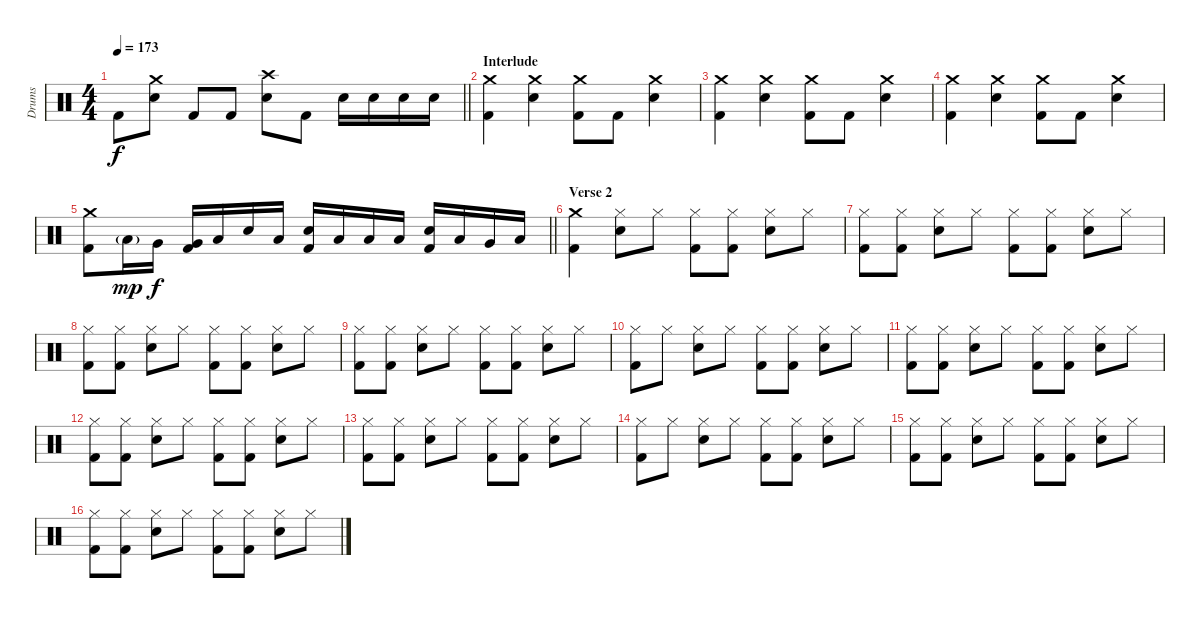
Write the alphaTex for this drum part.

\track ("Drums" "Drums") {instrument percussion}
\staff {score}
\articulation defaults
\ts (4 4)
\tempo 173
\clef neutral
\barLineRight lightlight
\ks c "Kick (hit) 2".8{dy f}
("Crash medium (hit)" "Electric Snare (hit)").8 "Kick (hit) 2".8 "Kick (hit) 2".8 ("Crash high (hit)" "Electric Snare (hit)").8 "Kick (hit) 2".8 "Electric Snare (hit)".16 "Electric Snare (hit)".16 "Electric Snare (hit)".16 "Electric Snare (hit)".16 |
\section ("" "Interlude")
("Crash medium (hit)" "Kick (hit) 2").4 ("Crash medium (hit)" "Electric Snare (hit)").4 ("Crash medium (hit)" "Kick (hit) 2").8 "Kick (hit) 2".8 ("Crash medium (hit)" "Electric Snare (hit)").4 |
("Crash medium (hit)" "Kick (hit) 2").4 ("Crash medium (hit)" "Electric Snare (hit)").4 ("Crash medium (hit)" "Kick (hit) 2").8 "Kick (hit) 2".8 ("Crash medium (hit)" "Electric Snare (hit)").4 |
("Crash medium (hit)" "Kick (hit) 2").4 ("Crash medium (hit)" "Electric Snare (hit)").4 ("Crash medium (hit)" "Kick (hit) 2").8 "Kick (hit) 2".8 ("Crash medium (hit)" "Electric Snare (hit)").4 |
\barLineRight lightlight
("Crash medium (hit)" "Kick (hit) 2").8 "Low Tom (hit)"{g}.16{dy mp} "Very Low Tom (hit)".16{dy f} ("Very Low Tom (hit)" "Kick (hit) 2").16 "Low Floor Tom (hit)".16 "Electric Snare (hit)".16 "Low Floor Tom (hit)".16 ("Electric Snare (hit)" "Kick (hit) 2").16 "Low Floor Tom (hit)".16 "Low Floor Tom (hit)".16 "Low Tom (hit)".16 ("Electric Snare (hit)" "Kick (hit) 2").16 "Low Tom (hit)".16 "Very Low Tom (hit)".16 "Low Floor Tom (hit)".16 |
\section ("" "Verse 2")
("Crash medium (hit)" "Kick (hit) 2").4 ("Hi-Hat (closed)" "Electric Snare (hit)").8 "Hi-Hat (closed)".8 ("Hi-Hat (closed)" "Kick (hit) 2").8 ("Hi-Hat (closed)" "Kick (hit) 2").8 ("Hi-Hat (closed)" "Electric Snare (hit)").8 "Hi-Hat (closed)".8 |
("Hi-Hat (closed)" "Kick (hit) 2").8 ("Hi-Hat (closed)" "Kick (hit) 2").8 ("Hi-Hat (closed)" "Electric Snare (hit)").8 "Hi-Hat (closed)".8 ("Hi-Hat (closed)" "Kick (hit) 2").8 ("Hi-Hat (closed)" "Kick (hit) 2").8 ("Hi-Hat (closed)" "Electric Snare (hit)").8 "Hi-Hat (closed)".8 |
("Hi-Hat (closed)" "Kick (hit) 2").8 ("Hi-Hat (closed)" "Kick (hit) 2").8 ("Hi-Hat (closed)" "Electric Snare (hit)").8 "Hi-Hat (closed)".8 ("Hi-Hat (closed)" "Kick (hit) 2").8 ("Hi-Hat (closed)" "Kick (hit) 2").8 ("Hi-Hat (closed)" "Electric Snare (hit)").8 "Hi-Hat (closed)".8 |
("Hi-Hat (closed)" "Kick (hit) 2").8 ("Hi-Hat (closed)" "Kick (hit) 2").8 ("Hi-Hat (closed)" "Electric Snare (hit)").8 "Hi-Hat (closed)".8 ("Hi-Hat (closed)" "Kick (hit) 2").8 ("Hi-Hat (closed)" "Kick (hit) 2").8 ("Hi-Hat (closed)" "Electric Snare (hit)").8 "Hi-Hat (closed)".8 |
("Hi-Hat (closed)" "Kick (hit) 2").8 "Hi-Hat (closed)".8 ("Hi-Hat (closed)" "Electric Snare (hit)").8 "Hi-Hat (closed)".8 ("Hi-Hat (closed)" "Kick (hit) 2").8 ("Hi-Hat (closed)" "Kick (hit) 2").8 ("Hi-Hat (closed)" "Electric Snare (hit)").8 "Hi-Hat (closed)".8 |
("Hi-Hat (closed)" "Kick (hit) 2").8 ("Hi-Hat (closed)" "Kick (hit) 2").8 ("Hi-Hat (closed)" "Electric Snare (hit)").8 "Hi-Hat (closed)".8 ("Hi-Hat (closed)" "Kick (hit) 2").8 ("Hi-Hat (closed)" "Kick (hit) 2").8 ("Hi-Hat (closed)" "Electric Snare (hit)").8 "Hi-Hat (closed)".8 |
("Hi-Hat (closed)" "Kick (hit) 2").8 ("Hi-Hat (closed)" "Kick (hit) 2").8 ("Hi-Hat (closed)" "Electric Snare (hit)").8 "Hi-Hat (closed)".8 ("Hi-Hat (closed)" "Kick (hit) 2").8 ("Hi-Hat (closed)" "Kick (hit) 2").8 ("Hi-Hat (closed)" "Electric Snare (hit)").8 "Hi-Hat (closed)".8 |
("Hi-Hat (closed)" "Kick (hit) 2").8 ("Hi-Hat (closed)" "Kick (hit) 2").8 ("Hi-Hat (closed)" "Electric Snare (hit)").8 "Hi-Hat (closed)".8 ("Hi-Hat (closed)" "Kick (hit) 2").8 ("Hi-Hat (closed)" "Kick (hit) 2").8 ("Hi-Hat (closed)" "Electric Snare (hit)").8 "Hi-Hat (closed)".8 |
("Hi-Hat (closed)" "Kick (hit) 2").8 "Hi-Hat (closed)".8 ("Hi-Hat (closed)" "Electric Snare (hit)").8 "Hi-Hat (closed)".8 ("Hi-Hat (closed)" "Kick (hit) 2").8 ("Hi-Hat (closed)" "Kick (hit) 2").8 ("Hi-Hat (closed)" "Electric Snare (hit)").8 "Hi-Hat (closed)".8 |
("Hi-Hat (closed)" "Kick (hit) 2").8 ("Hi-Hat (closed)" "Kick (hit) 2").8 ("Hi-Hat (closed)" "Electric Snare (hit)").8 "Hi-Hat (closed)".8 ("Hi-Hat (closed)" "Kick (hit) 2").8 ("Hi-Hat (closed)" "Kick (hit) 2").8 ("Hi-Hat (closed)" "Electric Snare (hit)").8 "Hi-Hat (closed)".8 |
("Hi-Hat (closed)" "Kick (hit) 2").8 ("Hi-Hat (closed)" "Kick (hit) 2").8 ("Hi-Hat (closed)" "Electric Snare (hit)").8 "Hi-Hat (closed)".8 ("Hi-Hat (closed)" "Kick (hit) 2").8 ("Hi-Hat (closed)" "Kick (hit) 2").8 ("Hi-Hat (closed)" "Electric Snare (hit)").8 "Hi-Hat (closed)".8
